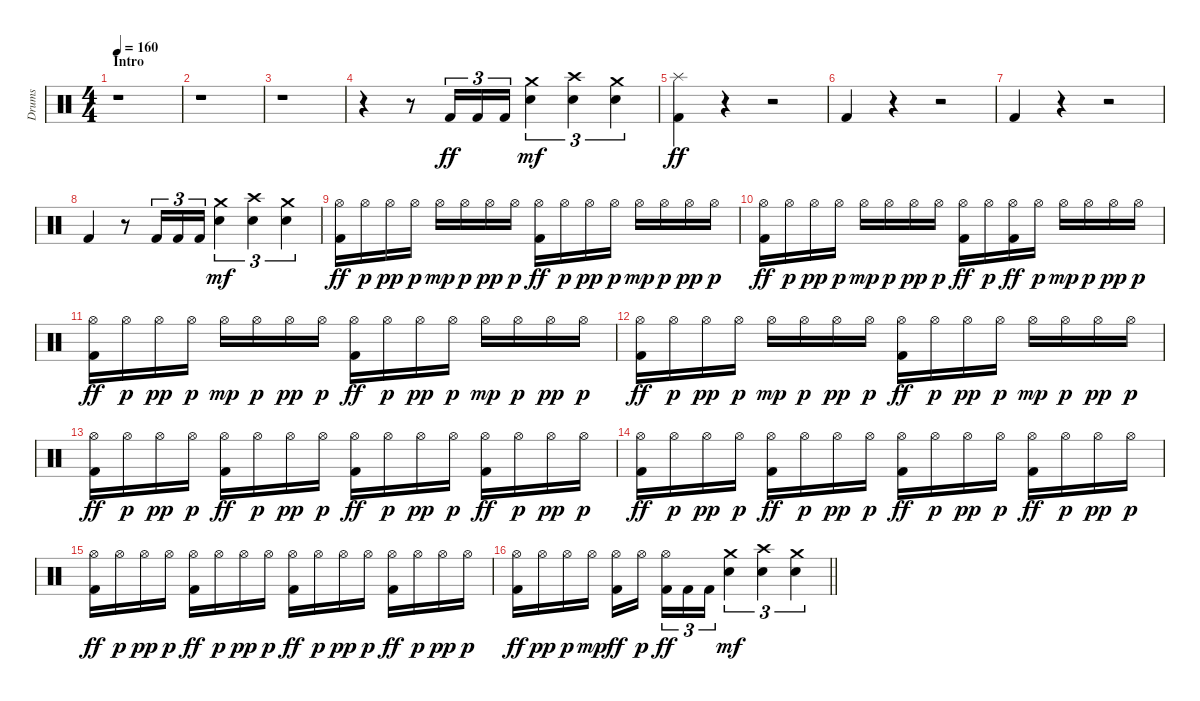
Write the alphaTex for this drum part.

\track ("Drums" "Drums") {instrument percussion}
\staff {score}
\articulation defaults
\ts (4 4)
\section ("" "Intro")
\tempo 160
\clef neutral
\ks c
r.1{dy ff} |
r.1 |
r.1 |
r.4 r.8 "Kick (hit) 2".16{tu (3 2)} "Kick (hit) 2".16{tu (3 2)} "Kick (hit) 2".16{tu (3 2)} ("Crash medium (hit)" "Electric Snare (hit)").4{tu (3 2) dy mf} ("Crash high (hit)" "Electric Snare (hit)").4{tu (3 2)} ("Crash medium (hit)" "Electric Snare (hit)").4{tu (3 2)} |
("Splash (hit)" "Kick (hit) 2").4{dy ff} r.4 r.2 |
"Kick (hit) 2".4 r.4 r.2 |
"Kick (hit) 2".4 r.4 r.2 |
"Kick (hit) 2".4 r.8 "Kick (hit) 2".16{tu (3 2)} "Kick (hit) 2".16{tu (3 2)} "Kick (hit) 2".16{tu (3 2)} ("Crash medium (hit)" "Electric Snare (hit)").4{tu (3 2) dy mf} ("Crash high (hit)" "Electric Snare (hit)").4{tu (3 2)} ("Crash medium (hit)" "Electric Snare (hit)").4{tu (3 2)} |
("Hi-Hat (open)" "Kick (hit) 2").16{dy ff} "Hi-Hat (open)".16{dy p} "Hi-Hat (open)".16{dy pp} "Hi-Hat (open)".16{dy p} "Hi-Hat (open)".16{dy mp} "Hi-Hat (open)".16{dy p} "Hi-Hat (open)".16{dy pp} "Hi-Hat (open)".16{dy p} ("Hi-Hat (open)" "Kick (hit) 2").16{dy ff} "Hi-Hat (open)".16{dy p} "Hi-Hat (open)".16{dy pp} "Hi-Hat (open)".16{dy p} "Hi-Hat (open)".16{dy mp} "Hi-Hat (open)".16{dy p} "Hi-Hat (open)".16{dy pp} "Hi-Hat (open)".16{dy p} |
("Hi-Hat (open)" "Kick (hit) 2").16{dy ff} "Hi-Hat (open)".16{dy p} "Hi-Hat (open)".16{dy pp} "Hi-Hat (open)".16{dy p} "Hi-Hat (open)".16{dy mp} "Hi-Hat (open)".16{dy p} "Hi-Hat (open)".16{dy pp} "Hi-Hat (open)".16{dy p} ("Hi-Hat (open)" "Kick (hit) 2").16{dy ff} "Hi-Hat (open)".16{dy p} ("Hi-Hat (open)" "Kick (hit) 2").16{dy ff} "Hi-Hat (open)".16{dy p} "Hi-Hat (open)".16{dy mp} "Hi-Hat (open)".16{dy p} "Hi-Hat (open)".16{dy pp} "Hi-Hat (open)".16{dy p} |
("Hi-Hat (open)" "Kick (hit) 2").16{dy ff} "Hi-Hat (open)".16{dy p} "Hi-Hat (open)".16{dy pp} "Hi-Hat (open)".16{dy p} "Hi-Hat (open)".16{dy mp} "Hi-Hat (open)".16{dy p} "Hi-Hat (open)".16{dy pp} "Hi-Hat (open)".16{dy p} ("Hi-Hat (open)" "Kick (hit) 2").16{dy ff} "Hi-Hat (open)".16{dy p} "Hi-Hat (open)".16{dy pp} "Hi-Hat (open)".16{dy p} "Hi-Hat (open)".16{dy mp} "Hi-Hat (open)".16{dy p} "Hi-Hat (open)".16{dy pp} "Hi-Hat (open)".16{dy p} |
("Hi-Hat (open)" "Kick (hit) 2").16{dy ff} "Hi-Hat (open)".16{dy p} "Hi-Hat (open)".16{dy pp} "Hi-Hat (open)".16{dy p} "Hi-Hat (open)".16{dy mp} "Hi-Hat (open)".16{dy p} "Hi-Hat (open)".16{dy pp} "Hi-Hat (open)".16{dy p} ("Hi-Hat (open)" "Kick (hit) 2").16{dy ff} "Hi-Hat (open)".16{dy p} "Hi-Hat (open)".16{dy pp} "Hi-Hat (open)".16{dy p} "Hi-Hat (open)".16{dy mp} "Hi-Hat (open)".16{dy p} "Hi-Hat (open)".16{dy pp} "Hi-Hat (open)".16{dy p} |
("Hi-Hat (open)" "Kick (hit) 2").16{dy ff} "Hi-Hat (open)".16{dy p} "Hi-Hat (open)".16{dy pp} "Hi-Hat (open)".16{dy p} ("Hi-Hat (open)" "Kick (hit) 2").16{dy ff} "Hi-Hat (open)".16{dy p} "Hi-Hat (open)".16{dy pp} "Hi-Hat (open)".16{dy p} ("Hi-Hat (open)" "Kick (hit) 2").16{dy ff} "Hi-Hat (open)".16{dy p} "Hi-Hat (open)".16{dy pp} "Hi-Hat (open)".16{dy p} ("Hi-Hat (open)" "Kick (hit) 2").16{dy ff} "Hi-Hat (open)".16{dy p} "Hi-Hat (open)".16{dy pp} "Hi-Hat (open)".16{dy p} |
("Hi-Hat (open)" "Kick (hit) 2").16{dy ff} "Hi-Hat (open)".16{dy p} "Hi-Hat (open)".16{dy pp} "Hi-Hat (open)".16{dy p} ("Hi-Hat (open)" "Kick (hit) 2").16{dy ff} "Hi-Hat (open)".16{dy p} "Hi-Hat (open)".16{dy pp} "Hi-Hat (open)".16{dy p} ("Hi-Hat (open)" "Kick (hit) 2").16{dy ff} "Hi-Hat (open)".16{dy p} "Hi-Hat (open)".16{dy pp} "Hi-Hat (open)".16{dy p} ("Hi-Hat (open)" "Kick (hit) 2").16{dy ff} "Hi-Hat (open)".16{dy p} "Hi-Hat (open)".16{dy pp} "Hi-Hat (open)".16{dy p} |
("Hi-Hat (open)" "Kick (hit) 2").16{dy ff} "Hi-Hat (open)".16{dy p} "Hi-Hat (open)".16{dy pp} "Hi-Hat (open)".16{dy p} ("Hi-Hat (open)" "Kick (hit) 2").16{dy ff} "Hi-Hat (open)".16{dy p} "Hi-Hat (open)".16{dy pp} "Hi-Hat (open)".16{dy p} ("Hi-Hat (open)" "Kick (hit) 2").16{dy ff} "Hi-Hat (open)".16{dy p} "Hi-Hat (open)".16{dy pp} "Hi-Hat (open)".16{dy p} ("Hi-Hat (open)" "Kick (hit) 2").16{dy ff} "Hi-Hat (open)".16{dy p} "Hi-Hat (open)".16{dy pp} "Hi-Hat (open)".16{dy p} |
\barLineRight lightlight
("Hi-Hat (open)" "Kick (hit) 2").16{dy ff} "Hi-Hat (open)".16{dy pp} "Hi-Hat (open)".16{dy p} "Hi-Hat (open)".16{dy mp} ("Hi-Hat (open)" "Kick (hit) 2").16{dy ff} "Hi-Hat (open)".16{dy p} ("Hi-Hat (open)" "Kick (hit) 2").16{tu (3 2) dy ff} "Kick (hit) 2".16{tu (3 2)} "Kick (hit) 2".16{tu (3 2)} ("Crash medium (hit)" "Electric Snare (hit)").4{tu (3 2) dy mf} ("Crash high (hit)" "Electric Snare (hit)").4{tu (3 2)} ("Crash medium (hit)" "Electric Snare (hit)").4{tu (3 2)}
